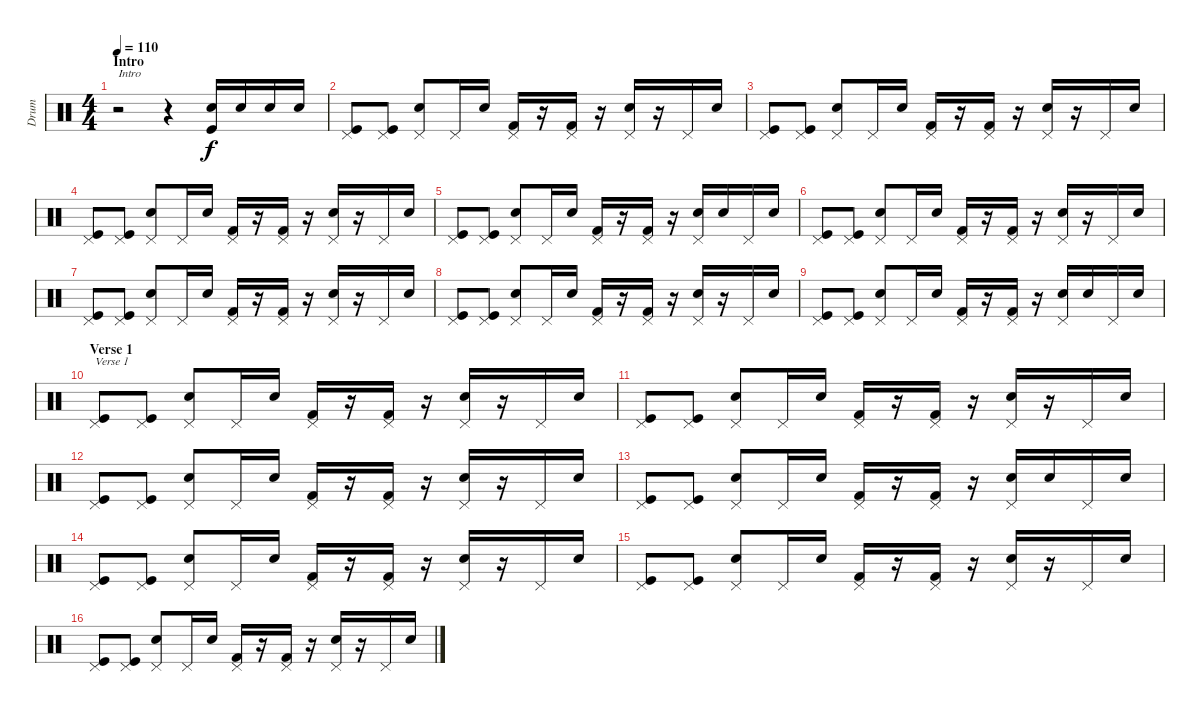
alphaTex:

\track ("Drum" "Drum") {instrument percussion}
\staff {score}
\articulation defaults
\ts (4 4)
\section ("" "Intro")
\tempo 110
\clef neutral
\ks c
r.2{txt "Intro" dy f} r.4 ("Electric Snare (hit)" "Kick (hit)").16 "Electric Snare (hit)".16 "Electric Snare (hit)".16 "Electric Snare (hit)".16 |
("Pedal Hi-Hat (hit)" "Kick (hit)").8 ("Pedal Hi-Hat (hit)" "Kick (hit)").8 ("Pedal Hi-Hat (hit)" "Electric Snare (hit)").8 "Pedal Hi-Hat (hit)".16 "Electric Snare (hit)".16 ("Pedal Hi-Hat (hit)" "Kick (hit) 2").16 r.16 ("Pedal Hi-Hat (hit)" "Kick (hit) 2").16 r.16 ("Pedal Hi-Hat (hit)" "Electric Snare (hit)").16 r.16 "Pedal Hi-Hat (hit)".16 "Electric Snare (hit)".16 |
("Pedal Hi-Hat (hit)" "Kick (hit)").8 ("Pedal Hi-Hat (hit)" "Kick (hit)").8 ("Pedal Hi-Hat (hit)" "Electric Snare (hit)").8 "Pedal Hi-Hat (hit)".16 "Electric Snare (hit)".16 ("Pedal Hi-Hat (hit)" "Kick (hit) 2").16 r.16 ("Pedal Hi-Hat (hit)" "Kick (hit) 2").16 r.16 ("Pedal Hi-Hat (hit)" "Electric Snare (hit)").16 r.16 "Pedal Hi-Hat (hit)".16 "Electric Snare (hit)".16 |
("Pedal Hi-Hat (hit)" "Kick (hit)").8 ("Pedal Hi-Hat (hit)" "Kick (hit)").8 ("Pedal Hi-Hat (hit)" "Electric Snare (hit)").8 "Pedal Hi-Hat (hit)".16 "Electric Snare (hit)".16 ("Pedal Hi-Hat (hit)" "Kick (hit) 2").16 r.16 ("Pedal Hi-Hat (hit)" "Kick (hit) 2").16 r.16 ("Pedal Hi-Hat (hit)" "Electric Snare (hit)").16 r.16 "Pedal Hi-Hat (hit)".16 "Electric Snare (hit)".16 |
("Pedal Hi-Hat (hit)" "Kick (hit)").8 ("Pedal Hi-Hat (hit)" "Kick (hit)").8 ("Pedal Hi-Hat (hit)" "Electric Snare (hit)").8 "Pedal Hi-Hat (hit)".16 "Electric Snare (hit)".16 ("Pedal Hi-Hat (hit)" "Kick (hit) 2").16 r.16 ("Pedal Hi-Hat (hit)" "Kick (hit) 2").16 r.16 ("Pedal Hi-Hat (hit)" "Electric Snare (hit)").16 "Electric Snare (hit)".16 "Pedal Hi-Hat (hit)".16 "Electric Snare (hit)".16 |
("Pedal Hi-Hat (hit)" "Kick (hit)").8 ("Pedal Hi-Hat (hit)" "Kick (hit)").8 ("Pedal Hi-Hat (hit)" "Electric Snare (hit)").8 "Pedal Hi-Hat (hit)".16 "Electric Snare (hit)".16 ("Pedal Hi-Hat (hit)" "Kick (hit) 2").16 r.16 ("Pedal Hi-Hat (hit)" "Kick (hit) 2").16 r.16 ("Pedal Hi-Hat (hit)" "Electric Snare (hit)").16 r.16 "Pedal Hi-Hat (hit)".16 "Electric Snare (hit)".16 |
("Pedal Hi-Hat (hit)" "Kick (hit)").8 ("Pedal Hi-Hat (hit)" "Kick (hit)").8 ("Pedal Hi-Hat (hit)" "Electric Snare (hit)").8 "Pedal Hi-Hat (hit)".16 "Electric Snare (hit)".16 ("Pedal Hi-Hat (hit)" "Kick (hit) 2").16 r.16 ("Pedal Hi-Hat (hit)" "Kick (hit) 2").16 r.16 ("Pedal Hi-Hat (hit)" "Electric Snare (hit)").16 r.16 "Pedal Hi-Hat (hit)".16 "Electric Snare (hit)".16 |
("Pedal Hi-Hat (hit)" "Kick (hit)").8 ("Pedal Hi-Hat (hit)" "Kick (hit)").8 ("Pedal Hi-Hat (hit)" "Electric Snare (hit)").8 "Pedal Hi-Hat (hit)".16 "Electric Snare (hit)".16 ("Pedal Hi-Hat (hit)" "Kick (hit) 2").16 r.16 ("Pedal Hi-Hat (hit)" "Kick (hit) 2").16 r.16 ("Pedal Hi-Hat (hit)" "Electric Snare (hit)").16 r.16 "Pedal Hi-Hat (hit)".16 "Electric Snare (hit)".16 |
("Pedal Hi-Hat (hit)" "Kick (hit)").8 ("Pedal Hi-Hat (hit)" "Kick (hit)").8 ("Pedal Hi-Hat (hit)" "Electric Snare (hit)").8 "Pedal Hi-Hat (hit)".16 "Electric Snare (hit)".16 ("Pedal Hi-Hat (hit)" "Kick (hit) 2").16 r.16 ("Pedal Hi-Hat (hit)" "Kick (hit) 2").16 r.16 ("Pedal Hi-Hat (hit)" "Electric Snare (hit)").16 "Electric Snare (hit)".16 "Pedal Hi-Hat (hit)".16 "Electric Snare (hit)".16 |
\section ("" "Verse 1")
("Pedal Hi-Hat (hit)" "Kick (hit)").8{txt "Verse 1"} ("Pedal Hi-Hat (hit)" "Kick (hit)").8 ("Pedal Hi-Hat (hit)" "Electric Snare (hit)").8 "Pedal Hi-Hat (hit)".16 "Electric Snare (hit)".16 ("Pedal Hi-Hat (hit)" "Kick (hit) 2").16 r.16 ("Pedal Hi-Hat (hit)" "Kick (hit) 2").16 r.16 ("Pedal Hi-Hat (hit)" "Electric Snare (hit)").16 r.16 "Pedal Hi-Hat (hit)".16 "Electric Snare (hit)".16 |
("Pedal Hi-Hat (hit)" "Kick (hit)").8 ("Pedal Hi-Hat (hit)" "Kick (hit)").8 ("Pedal Hi-Hat (hit)" "Electric Snare (hit)").8 "Pedal Hi-Hat (hit)".16 "Electric Snare (hit)".16 ("Pedal Hi-Hat (hit)" "Kick (hit) 2").16 r.16 ("Pedal Hi-Hat (hit)" "Kick (hit) 2").16 r.16 ("Pedal Hi-Hat (hit)" "Electric Snare (hit)").16 r.16 "Pedal Hi-Hat (hit)".16 "Electric Snare (hit)".16 |
("Pedal Hi-Hat (hit)" "Kick (hit)").8 ("Pedal Hi-Hat (hit)" "Kick (hit)").8 ("Pedal Hi-Hat (hit)" "Electric Snare (hit)").8 "Pedal Hi-Hat (hit)".16 "Electric Snare (hit)".16 ("Pedal Hi-Hat (hit)" "Kick (hit) 2").16 r.16 ("Pedal Hi-Hat (hit)" "Kick (hit) 2").16 r.16 ("Pedal Hi-Hat (hit)" "Electric Snare (hit)").16 r.16 "Pedal Hi-Hat (hit)".16 "Electric Snare (hit)".16 |
("Pedal Hi-Hat (hit)" "Kick (hit)").8 ("Pedal Hi-Hat (hit)" "Kick (hit)").8 ("Pedal Hi-Hat (hit)" "Electric Snare (hit)").8 "Pedal Hi-Hat (hit)".16 "Electric Snare (hit)".16 ("Pedal Hi-Hat (hit)" "Kick (hit) 2").16 r.16 ("Pedal Hi-Hat (hit)" "Kick (hit) 2").16 r.16 ("Pedal Hi-Hat (hit)" "Electric Snare (hit)").16 "Electric Snare (hit)".16 "Pedal Hi-Hat (hit)".16 "Electric Snare (hit)".16 |
("Pedal Hi-Hat (hit)" "Kick (hit)").8 ("Pedal Hi-Hat (hit)" "Kick (hit)").8 ("Pedal Hi-Hat (hit)" "Electric Snare (hit)").8 "Pedal Hi-Hat (hit)".16 "Electric Snare (hit)".16 ("Pedal Hi-Hat (hit)" "Kick (hit) 2").16 r.16 ("Pedal Hi-Hat (hit)" "Kick (hit) 2").16 r.16 ("Pedal Hi-Hat (hit)" "Electric Snare (hit)").16 r.16 "Pedal Hi-Hat (hit)".16 "Electric Snare (hit)".16 |
("Pedal Hi-Hat (hit)" "Kick (hit)").8 ("Pedal Hi-Hat (hit)" "Kick (hit)").8 ("Pedal Hi-Hat (hit)" "Electric Snare (hit)").8 "Pedal Hi-Hat (hit)".16 "Electric Snare (hit)".16 ("Pedal Hi-Hat (hit)" "Kick (hit) 2").16 r.16 ("Pedal Hi-Hat (hit)" "Kick (hit) 2").16 r.16 ("Pedal Hi-Hat (hit)" "Electric Snare (hit)").16 r.16 "Pedal Hi-Hat (hit)".16 "Electric Snare (hit)".16 |
("Pedal Hi-Hat (hit)" "Kick (hit)").8 ("Pedal Hi-Hat (hit)" "Kick (hit)").8 ("Pedal Hi-Hat (hit)" "Electric Snare (hit)").8 "Pedal Hi-Hat (hit)".16 "Electric Snare (hit)".16 ("Pedal Hi-Hat (hit)" "Kick (hit) 2").16 r.16 ("Pedal Hi-Hat (hit)" "Kick (hit) 2").16 r.16 ("Pedal Hi-Hat (hit)" "Electric Snare (hit)").16 r.16 "Pedal Hi-Hat (hit)".16 "Electric Snare (hit)".16
